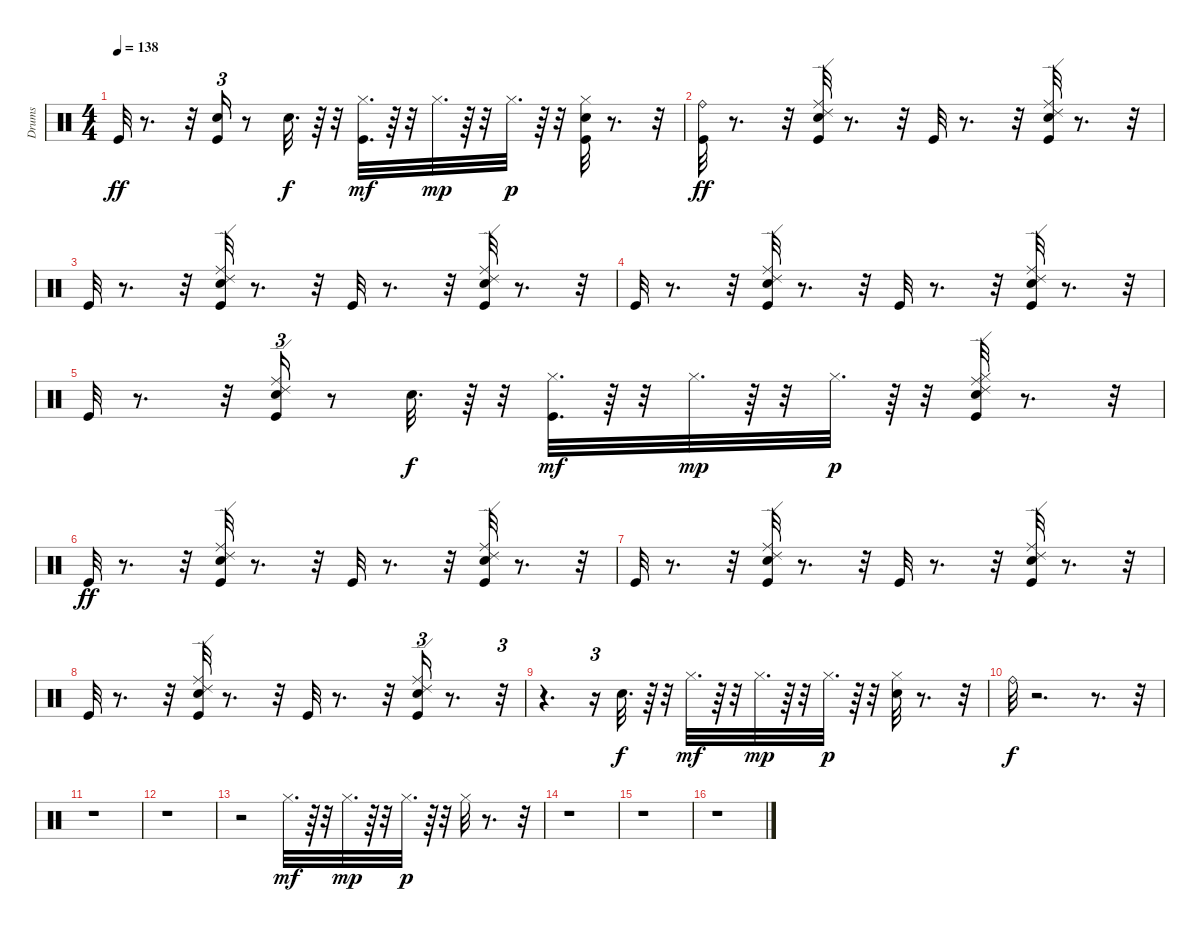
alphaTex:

\track ("Drums" "Drums") {instrument percussion}
\staff {score}
\articulation defaults
\ts (4 4)
\tempo 138
\clef neutral
\ks c "Kick (hit)".32{dy ff}
r.8{d} r.32 ("Kick (hit)" "Hand Clap (hit)").16{tu (3 2)} r.8 "Hand Clap (hit)".32{d dy f} r.64 r.32 ("Kick (hit)" "Hi-Hat (closed)").32{d dy mf} r.64 r.32 "Hi-Hat (closed)".32{d dy mp} r.64 r.32 "Hi-Hat (closed)".32{d dy p} r.64 r.32 ("Hand Clap (hit)" "Kick (hit)" "Hi-Hat (closed)").32 r.8{d} r.32 |
("Ride (bell)" "Kick (hit)").32{dy ff} r.8{d} r.32 ("Hand Clap (hit)" "Kick (hit)" "Ride (middle)" "Ride (edge) 2").32 r.8{d} r.32 "Kick (hit)".32 r.8{d} r.32 ("Ride (middle)" "Ride (edge) 2" "Hand Clap (hit)" "Kick (hit)").32 r.8{d} r.32 |
"Kick (hit)".32 r.8{d} r.32 ("Ride (middle)" "Ride (edge) 2" "Kick (hit)" "Hand Clap (hit)").32 r.8{d} r.32 "Kick (hit)".32 r.8{d} r.32 ("Ride (middle)" "Ride (edge) 2" "Kick (hit)" "Hand Clap (hit)").32 r.8{d} r.32 |
"Kick (hit)".32 r.8{d} r.32 ("Kick (hit)" "Hand Clap (hit)" "Ride (middle)" "Ride (edge) 2").32 r.8{d} r.32 "Kick (hit)".32 r.8{d} r.32 ("Ride (middle)" "Ride (edge) 2" "Hand Clap (hit)" "Kick (hit)").32 r.8{d} r.32 |
"Kick (hit)".32 r.8{d} r.32 ("Ride (middle)" "Ride (edge) 2" "Kick (hit)" "Hand Clap (hit)").16{tu (3 2)} r.8 "Hand Clap (hit)".32{d dy f} r.64 r.32 ("Kick (hit)" "Hi-Hat (closed)").32{d dy mf} r.64 r.32 "Hi-Hat (closed)".32{d dy mp} r.64 r.32 "Hi-Hat (closed)".32{d dy p} r.64 r.32 ("Ride (middle)" "Ride (edge) 2" "Hand Clap (hit)" "Kick (hit)" "Hi-Hat (closed)").32 r.8{d} r.32 |
"Kick (hit)".32{dy ff} r.8{d} r.32 ("Hand Clap (hit)" "Kick (hit)" "Ride (middle)" "Ride (edge) 2").32 r.8{d} r.32 "Kick (hit)".32 r.8{d} r.32 ("Ride (middle)" "Ride (edge) 2" "Hand Clap (hit)" "Kick (hit)").32 r.8{d} r.32 |
"Kick (hit)".32 r.8{d} r.32 ("Ride (middle)" "Ride (edge) 2" "Kick (hit)" "Hand Clap (hit)").32 r.8{d} r.32 "Kick (hit)".32 r.8{d} r.32 ("Ride (middle)" "Ride (edge) 2" "Kick (hit)" "Hand Clap (hit)").32 r.8{d} r.32 |
"Kick (hit)".32 r.8{d} r.32 ("Kick (hit)" "Hand Clap (hit)" "Ride (middle)" "Ride (edge) 2").32 r.8{d} r.32 "Kick (hit)".32 r.8{d} r.32 ("Ride (middle)" "Ride (edge) 2" "Hand Clap (hit)" "Kick (hit)").16{tu (3 2)} r.8{d} r.32{tu (3 2)} |
r.4{d} r.16{tu (3 2)} "Hand Clap (hit)".32{d dy f} r.64 r.32 "Hi-Hat (closed)".32{d dy mf} r.64 r.32 "Hi-Hat (closed)".32{d dy mp} r.64 r.32 "Hi-Hat (closed)".32{d dy p} r.64 r.32 ("Hand Clap (hit)" "Hi-Hat (closed)").32 r.8{d} r.32 |
"Ride (bell)".32{dy f} r.2{d} r.8{d} r.32 |
r.1 |
r.1 |
r.2 "Hi-Hat (closed)".32{d dy mf} r.64 r.32 "Hi-Hat (closed)".32{d dy mp} r.64 r.32 "Hi-Hat (closed)".32{d dy p} r.64 r.32 "Hi-Hat (closed)".32 r.8{d} r.32 |
r.1 |
r.1 |
r.1
